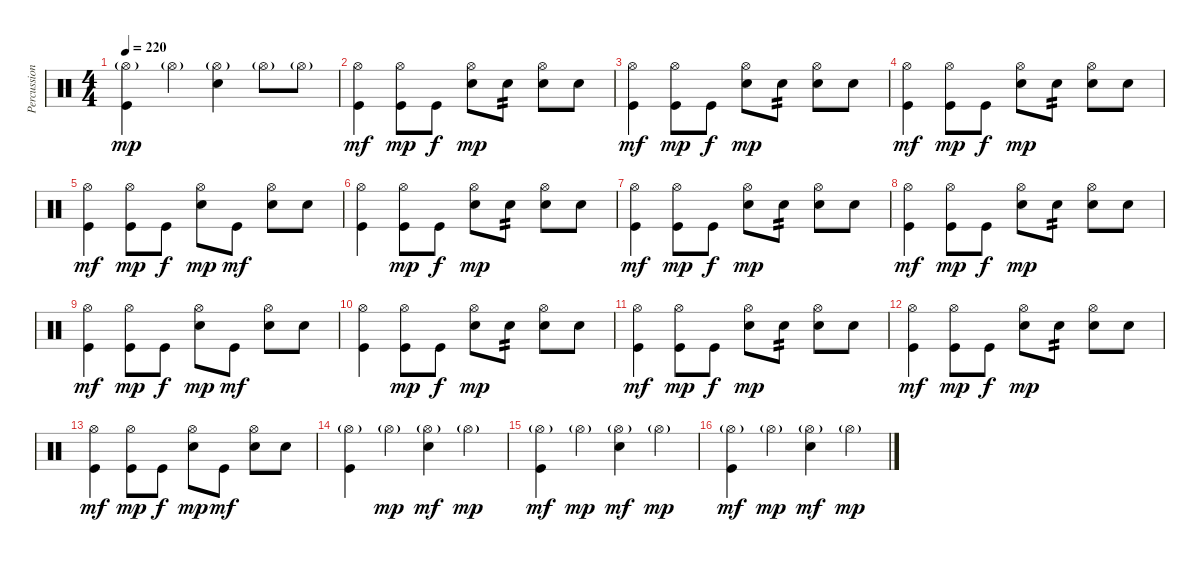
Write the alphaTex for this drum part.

\track ("Percussion" "Percussion") {instrument percussion}
\staff {score}
\articulation defaults
\ts (4 4)
\tempo 220
\clef neutral
\ks c
("Hi-Hat (open)"{g} "Kick (hit)").4{dy mp} "Hi-Hat (open)"{g}.4 ("Hi-Hat (open)"{g} "Electric Snare (hit)").4 "Hi-Hat (open)"{g}.8 "Hi-Hat (open)"{g}.8 |
("Hi-Hat (open)" "Kick (hit)").4{dy mf} ("Hi-Hat (open)" "Kick (hit)").8{dy mp} "Kick (hit)".8{dy f} ("Hi-Hat (open)" "Electric Snare (hit)").8{dy mp} "Electric Snare (hit)".8{tp 2} ("Hi-Hat (open)" "Electric Snare (hit)").8 "Electric Snare (hit)".8 |
("Hi-Hat (open)" "Kick (hit)").4{dy mf} ("Hi-Hat (open)" "Kick (hit)").8{dy mp} "Kick (hit)".8{dy f} ("Hi-Hat (open)" "Electric Snare (hit)").8{dy mp} "Electric Snare (hit)".8{tp 2} ("Hi-Hat (open)" "Electric Snare (hit)").8 "Electric Snare (hit)".8 |
("Hi-Hat (open)" "Kick (hit)").4{dy mf} ("Hi-Hat (open)" "Kick (hit)").8{dy mp} "Kick (hit)".8{dy f} ("Hi-Hat (open)" "Electric Snare (hit)").8{dy mp} "Electric Snare (hit)".8{tp 2} ("Hi-Hat (open)" "Electric Snare (hit)").8 "Electric Snare (hit)".8 |
("Hi-Hat (open)" "Kick (hit)").4{dy mf} ("Hi-Hat (open)" "Kick (hit)").8{dy mp} "Kick (hit)".8{dy f} ("Hi-Hat (open)" "Electric Snare (hit)").8{dy mp} "Kick (hit)".8{dy mf} ("Hi-Hat (open)" "Electric Snare (hit)").8 "Electric Snare (hit)".8 |
("Hi-Hat (open)" "Kick (hit)").4 ("Hi-Hat (open)" "Kick (hit)").8{dy mp} "Kick (hit)".8{dy f} ("Hi-Hat (open)" "Electric Snare (hit)").8{dy mp} "Electric Snare (hit)".8{tp 2} ("Hi-Hat (open)" "Electric Snare (hit)").8 "Electric Snare (hit)".8 |
("Hi-Hat (open)" "Kick (hit)").4{dy mf} ("Hi-Hat (open)" "Kick (hit)").8{dy mp} "Kick (hit)".8{dy f} ("Hi-Hat (open)" "Electric Snare (hit)").8{dy mp} "Electric Snare (hit)".8{tp 2} ("Hi-Hat (open)" "Electric Snare (hit)").8 "Electric Snare (hit)".8 |
("Hi-Hat (open)" "Kick (hit)").4{dy mf} ("Hi-Hat (open)" "Kick (hit)").8{dy mp} "Kick (hit)".8{dy f} ("Hi-Hat (open)" "Electric Snare (hit)").8{dy mp} "Electric Snare (hit)".8{tp 2} ("Hi-Hat (open)" "Electric Snare (hit)").8 "Electric Snare (hit)".8 |
("Hi-Hat (open)" "Kick (hit)").4{dy mf} ("Hi-Hat (open)" "Kick (hit)").8{dy mp} "Kick (hit)".8{dy f} ("Hi-Hat (open)" "Electric Snare (hit)").8{dy mp} "Kick (hit)".8{dy mf} ("Hi-Hat (open)" "Electric Snare (hit)").8 "Electric Snare (hit)".8 |
("Hi-Hat (open)" "Kick (hit)").4 ("Hi-Hat (open)" "Kick (hit)").8{dy mp} "Kick (hit)".8{dy f} ("Hi-Hat (open)" "Electric Snare (hit)").8{dy mp} "Electric Snare (hit)".8{tp 2} ("Hi-Hat (open)" "Electric Snare (hit)").8 "Electric Snare (hit)".8 |
("Hi-Hat (open)" "Kick (hit)").4{dy mf} ("Hi-Hat (open)" "Kick (hit)").8{dy mp} "Kick (hit)".8{dy f} ("Hi-Hat (open)" "Electric Snare (hit)").8{dy mp} "Electric Snare (hit)".8{tp 2} ("Hi-Hat (open)" "Electric Snare (hit)").8 "Electric Snare (hit)".8 |
("Hi-Hat (open)" "Kick (hit)").4{dy mf} ("Hi-Hat (open)" "Kick (hit)").8{dy mp} "Kick (hit)".8{dy f} ("Hi-Hat (open)" "Electric Snare (hit)").8{dy mp} "Electric Snare (hit)".8{tp 2} ("Hi-Hat (open)" "Electric Snare (hit)").8 "Electric Snare (hit)".8 |
("Hi-Hat (open)" "Kick (hit)").4{dy mf} ("Hi-Hat (open)" "Kick (hit)").8{dy mp} "Kick (hit)".8{dy f} ("Hi-Hat (open)" "Electric Snare (hit)").8{dy mp} "Kick (hit)".8{dy mf} ("Hi-Hat (open)" "Electric Snare (hit)").8 "Electric Snare (hit)".8 |
("Hi-Hat (open)"{g} "Kick (hit)").4 "Hi-Hat (open)"{g}.4{dy mp} ("Hi-Hat (open)"{g} "Electric Snare (hit)").4{dy mf} "Hi-Hat (open)"{g}.4{dy mp} |
("Hi-Hat (open)"{g} "Kick (hit)").4{dy mf} "Hi-Hat (open)"{g}.4{dy mp} ("Hi-Hat (open)"{g} "Electric Snare (hit)").4{dy mf} "Hi-Hat (open)"{g}.4{dy mp} |
("Hi-Hat (open)"{g} "Kick (hit)").4{dy mf} "Hi-Hat (open)"{g}.4{dy mp} ("Hi-Hat (open)"{g} "Electric Snare (hit)").4{dy mf} "Hi-Hat (open)"{g}.4{dy mp}
